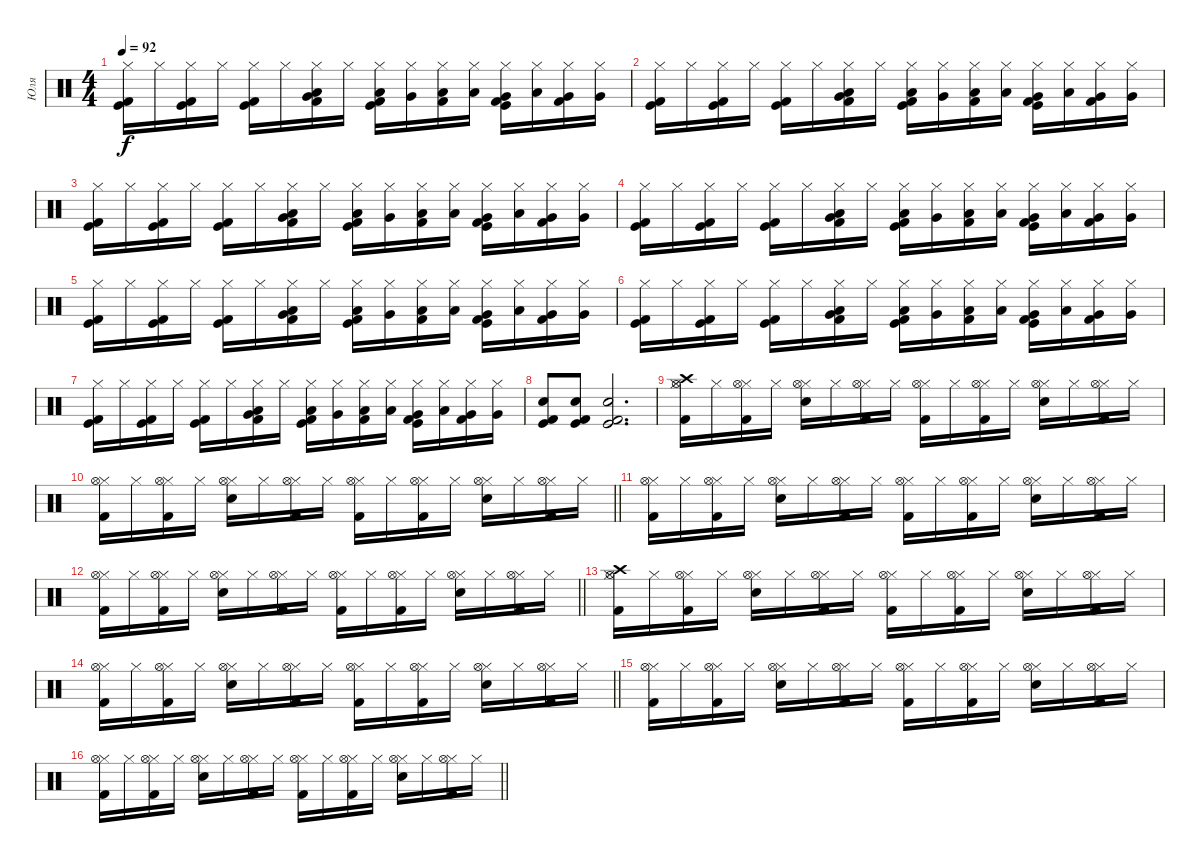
\track ("Юля" "Юля") {instrument percussion}
\staff {score}
\articulation defaults
\ts (4 4)
\tempo 92
\clef neutral
\ks c
("Hi-Hat (closed)" "Kick (hit)" "Kick (hit) 2").16{dy f} "Hi-Hat (closed)".16 ("Hi-Hat (closed)" "Kick (hit)" "Kick (hit) 2").16 "Hi-Hat (closed)".16 ("Hi-Hat (closed)" "Kick (hit)" "Kick (hit) 2").16 "Hi-Hat (closed)".16 ("Hi-Hat (closed)" "Very Low Tom (hit)" "Low Floor Tom (hit)" "Kick (hit) 2").16 "Hi-Hat (closed)".16 ("Hi-Hat (closed)" "Low Floor Tom (hit)" "Kick (hit)" "Kick (hit) 2").16 ("Hi-Hat (closed)" "Very Low Tom (hit)").16 ("Hi-Hat (closed)" "Low Tom (hit)" "Kick (hit) 2").16 ("Hi-Hat (closed)" "Low Floor Tom (hit)").16 ("Hi-Hat (closed)" "Very Low Tom (hit)" "Kick (hit)" "Kick (hit) 2").16 ("Hi-Hat (closed)" "Low Floor Tom (hit)").16 ("Hi-Hat (closed)" "Very Low Tom (hit)" "Kick (hit) 2").16 ("Hi-Hat (closed)" "Very Low Tom (hit)").16 |
("Hi-Hat (closed)" "Kick (hit)" "Kick (hit) 2").16 "Hi-Hat (closed)".16 ("Hi-Hat (closed)" "Kick (hit)" "Kick (hit) 2").16 "Hi-Hat (closed)".16 ("Hi-Hat (closed)" "Kick (hit)" "Kick (hit) 2").16 "Hi-Hat (closed)".16 ("Hi-Hat (closed)" "Very Low Tom (hit)" "Low Floor Tom (hit)" "Kick (hit) 2").16 "Hi-Hat (closed)".16 ("Hi-Hat (closed)" "Low Floor Tom (hit)" "Kick (hit)" "Kick (hit) 2").16 ("Hi-Hat (closed)" "Very Low Tom (hit)").16 ("Hi-Hat (closed)" "Low Tom (hit)" "Kick (hit) 2").16 ("Hi-Hat (closed)" "Low Floor Tom (hit)").16 ("Hi-Hat (closed)" "Very Low Tom (hit)" "Kick (hit)" "Kick (hit) 2").16 ("Hi-Hat (closed)" "Low Floor Tom (hit)").16 ("Hi-Hat (closed)" "Very Low Tom (hit)" "Kick (hit) 2").16 ("Hi-Hat (closed)" "Very Low Tom (hit)").16 |
("Hi-Hat (closed)" "Kick (hit)" "Kick (hit) 2").16 "Hi-Hat (closed)".16 ("Hi-Hat (closed)" "Kick (hit)" "Kick (hit) 2").16 "Hi-Hat (closed)".16 ("Hi-Hat (closed)" "Kick (hit)" "Kick (hit) 2").16 "Hi-Hat (closed)".16 ("Hi-Hat (closed)" "Very Low Tom (hit)" "Low Floor Tom (hit)" "Kick (hit) 2").16 "Hi-Hat (closed)".16 ("Hi-Hat (closed)" "Low Floor Tom (hit)" "Kick (hit)" "Kick (hit) 2").16 ("Hi-Hat (closed)" "Very Low Tom (hit)").16 ("Hi-Hat (closed)" "Low Tom (hit)" "Kick (hit) 2").16 ("Hi-Hat (closed)" "Low Floor Tom (hit)").16 ("Hi-Hat (closed)" "Very Low Tom (hit)" "Kick (hit)" "Kick (hit) 2").16 ("Hi-Hat (closed)" "Low Floor Tom (hit)").16 ("Hi-Hat (closed)" "Very Low Tom (hit)" "Kick (hit) 2").16 ("Hi-Hat (closed)" "Very Low Tom (hit)").16 |
("Hi-Hat (closed)" "Kick (hit)" "Kick (hit) 2").16 "Hi-Hat (closed)".16 ("Hi-Hat (closed)" "Kick (hit)" "Kick (hit) 2").16 "Hi-Hat (closed)".16 ("Hi-Hat (closed)" "Kick (hit)" "Kick (hit) 2").16 "Hi-Hat (closed)".16 ("Hi-Hat (closed)" "Very Low Tom (hit)" "Low Floor Tom (hit)" "Kick (hit) 2").16 "Hi-Hat (closed)".16 ("Hi-Hat (closed)" "Low Floor Tom (hit)" "Kick (hit)" "Kick (hit) 2").16 ("Hi-Hat (closed)" "Very Low Tom (hit)").16 ("Hi-Hat (closed)" "Low Tom (hit)" "Kick (hit) 2").16 ("Hi-Hat (closed)" "Low Floor Tom (hit)").16 ("Hi-Hat (closed)" "Very Low Tom (hit)" "Kick (hit)" "Kick (hit) 2").16 ("Hi-Hat (closed)" "Low Floor Tom (hit)").16 ("Hi-Hat (closed)" "Very Low Tom (hit)" "Kick (hit) 2").16 ("Hi-Hat (closed)" "Very Low Tom (hit)").16 |
("Hi-Hat (closed)" "Kick (hit)" "Kick (hit) 2").16 "Hi-Hat (closed)".16 ("Hi-Hat (closed)" "Kick (hit)" "Kick (hit) 2").16 "Hi-Hat (closed)".16 ("Hi-Hat (closed)" "Kick (hit)" "Kick (hit) 2").16 "Hi-Hat (closed)".16 ("Hi-Hat (closed)" "Very Low Tom (hit)" "Low Floor Tom (hit)" "Kick (hit) 2").16 "Hi-Hat (closed)".16 ("Hi-Hat (closed)" "Low Floor Tom (hit)" "Kick (hit)" "Kick (hit) 2").16 ("Hi-Hat (closed)" "Very Low Tom (hit)").16 ("Hi-Hat (closed)" "Low Tom (hit)" "Kick (hit) 2").16 ("Hi-Hat (closed)" "Low Floor Tom (hit)").16 ("Hi-Hat (closed)" "Very Low Tom (hit)" "Kick (hit)" "Kick (hit) 2").16 ("Hi-Hat (closed)" "Low Floor Tom (hit)").16 ("Hi-Hat (closed)" "Very Low Tom (hit)" "Kick (hit) 2").16 ("Hi-Hat (closed)" "Very Low Tom (hit)").16 |
("Hi-Hat (closed)" "Kick (hit)" "Kick (hit) 2").16 "Hi-Hat (closed)".16 ("Hi-Hat (closed)" "Kick (hit)" "Kick (hit) 2").16 "Hi-Hat (closed)".16 ("Hi-Hat (closed)" "Kick (hit)" "Kick (hit) 2").16 "Hi-Hat (closed)".16 ("Hi-Hat (closed)" "Very Low Tom (hit)" "Low Floor Tom (hit)" "Kick (hit) 2").16 "Hi-Hat (closed)".16 ("Hi-Hat (closed)" "Low Floor Tom (hit)" "Kick (hit)" "Kick (hit) 2").16 ("Hi-Hat (closed)" "Very Low Tom (hit)").16 ("Hi-Hat (closed)" "Low Tom (hit)" "Kick (hit) 2").16 ("Hi-Hat (closed)" "Low Floor Tom (hit)").16 ("Hi-Hat (closed)" "Very Low Tom (hit)" "Kick (hit)" "Kick (hit) 2").16 ("Hi-Hat (closed)" "Low Floor Tom (hit)").16 ("Hi-Hat (closed)" "Very Low Tom (hit)" "Kick (hit) 2").16 ("Hi-Hat (closed)" "Very Low Tom (hit)").16 |
("Hi-Hat (closed)" "Kick (hit)" "Kick (hit) 2").16 "Hi-Hat (closed)".16 ("Hi-Hat (closed)" "Kick (hit)" "Kick (hit) 2").16 "Hi-Hat (closed)".16 ("Hi-Hat (closed)" "Kick (hit)" "Kick (hit) 2").16 "Hi-Hat (closed)".16 ("Hi-Hat (closed)" "Very Low Tom (hit)" "Low Floor Tom (hit)" "Kick (hit) 2").16 "Hi-Hat (closed)".16 ("Hi-Hat (closed)" "Low Floor Tom (hit)" "Kick (hit)" "Kick (hit) 2").16 ("Hi-Hat (closed)" "Very Low Tom (hit)").16 ("Hi-Hat (closed)" "Low Tom (hit)" "Kick (hit) 2").16 ("Hi-Hat (closed)" "Low Floor Tom (hit)").16 ("Hi-Hat (closed)" "Very Low Tom (hit)" "Kick (hit)" "Kick (hit) 2").16 ("Hi-Hat (closed)" "Low Floor Tom (hit)").16 ("Hi-Hat (closed)" "Very Low Tom (hit)" "Kick (hit) 2").16 ("Hi-Hat (closed)" "Very Low Tom (hit)").16 |
("Snare (hit) 2" "Kick (hit)" "Kick (hit) 2").8 ("Snare (hit) 2" "Kick (hit)" "Kick (hit) 2").8 ("Snare (hit) 2" "Kick (hit)" "Kick (hit) 2").2{d} |
("Hi-Hat (closed)" "Crash high (hit)" "Hi-Hat (open)" "Kick (hit) 2").16 "Hi-Hat (closed)".16 ("Hi-Hat (closed)" "Hi-Hat (open)" "Kick (hit) 2").16 "Hi-Hat (closed)".16 ("Hi-Hat (closed)" "Snare (hit) 2" "Hi-Hat (open)").16 "Hi-Hat (closed)".16 ("Hi-Hat (closed)" "Hi-Hat (open)" "Kick (hit) 2").16 "Hi-Hat (closed)".16 ("Hi-Hat (closed)" "Hi-Hat (open)" "Kick (hit) 2").16 "Hi-Hat (closed)".16 ("Hi-Hat (closed)" "Hi-Hat (open)" "Kick (hit) 2").16 "Hi-Hat (closed)".16 ("Hi-Hat (closed)" "Snare (hit) 2" "Hi-Hat (open)").16 "Hi-Hat (closed)".16 ("Hi-Hat (closed)" "Hi-Hat (open)" "Kick (hit) 2").16 "Hi-Hat (closed)".16 |
\barLineRight lightlight
("Hi-Hat (closed)" "Hi-Hat (open)" "Kick (hit) 2").16 "Hi-Hat (closed)".16 ("Hi-Hat (closed)" "Hi-Hat (open)" "Kick (hit) 2").16 "Hi-Hat (closed)".16 ("Hi-Hat (closed)" "Snare (hit) 2" "Hi-Hat (open)").16 "Hi-Hat (closed)".16 ("Hi-Hat (closed)" "Hi-Hat (open)" "Kick (hit) 2").16 "Hi-Hat (closed)".16 ("Hi-Hat (closed)" "Hi-Hat (open)" "Kick (hit) 2").16 "Hi-Hat (closed)".16 ("Hi-Hat (closed)" "Hi-Hat (open)" "Kick (hit) 2").16 "Hi-Hat (closed)".16 ("Hi-Hat (closed)" "Snare (hit) 2" "Hi-Hat (open)").16 "Hi-Hat (closed)".16 ("Hi-Hat (closed)" "Hi-Hat (open)" "Kick (hit) 2").16 "Hi-Hat (closed)".16 |
("Hi-Hat (closed)" "Hi-Hat (open)" "Kick (hit) 2").16 "Hi-Hat (closed)".16 ("Hi-Hat (closed)" "Hi-Hat (open)" "Kick (hit) 2").16 "Hi-Hat (closed)".16 ("Hi-Hat (closed)" "Snare (hit) 2" "Hi-Hat (open)").16 "Hi-Hat (closed)".16 ("Hi-Hat (closed)" "Hi-Hat (open)" "Kick (hit) 2").16 "Hi-Hat (closed)".16 ("Hi-Hat (closed)" "Hi-Hat (open)" "Kick (hit) 2").16 "Hi-Hat (closed)".16 ("Hi-Hat (closed)" "Hi-Hat (open)" "Kick (hit) 2").16 "Hi-Hat (closed)".16 ("Hi-Hat (closed)" "Snare (hit) 2" "Hi-Hat (open)").16 "Hi-Hat (closed)".16 ("Hi-Hat (closed)" "Hi-Hat (open)" "Kick (hit) 2").16 "Hi-Hat (closed)".16 |
\barLineRight lightlight
("Hi-Hat (closed)" "Hi-Hat (open)" "Kick (hit) 2").16 "Hi-Hat (closed)".16 ("Hi-Hat (closed)" "Hi-Hat (open)" "Kick (hit) 2").16 "Hi-Hat (closed)".16 ("Hi-Hat (closed)" "Snare (hit) 2" "Hi-Hat (open)").16 "Hi-Hat (closed)".16 ("Hi-Hat (closed)" "Hi-Hat (open)" "Kick (hit) 2").16 "Hi-Hat (closed)".16 ("Hi-Hat (closed)" "Hi-Hat (open)" "Kick (hit) 2").16 "Hi-Hat (closed)".16 ("Hi-Hat (closed)" "Hi-Hat (open)" "Kick (hit) 2").16 "Hi-Hat (closed)".16 ("Hi-Hat (closed)" "Snare (hit) 2" "Hi-Hat (open)").16 "Hi-Hat (closed)".16 ("Hi-Hat (closed)" "Hi-Hat (open)" "Kick (hit) 2").16 "Hi-Hat (closed)".16 |
("Hi-Hat (closed)" "Crash high (hit)" "Hi-Hat (open)" "Kick (hit) 2").16 "Hi-Hat (closed)".16 ("Hi-Hat (closed)" "Hi-Hat (open)" "Kick (hit) 2").16 "Hi-Hat (closed)".16 ("Hi-Hat (closed)" "Snare (hit) 2" "Hi-Hat (open)").16 "Hi-Hat (closed)".16 ("Hi-Hat (closed)" "Hi-Hat (open)" "Kick (hit) 2").16 "Hi-Hat (closed)".16 ("Hi-Hat (closed)" "Hi-Hat (open)" "Kick (hit) 2").16 "Hi-Hat (closed)".16 ("Hi-Hat (closed)" "Hi-Hat (open)" "Kick (hit) 2").16 "Hi-Hat (closed)".16 ("Hi-Hat (closed)" "Snare (hit) 2" "Hi-Hat (open)").16 "Hi-Hat (closed)".16 ("Hi-Hat (closed)" "Hi-Hat (open)" "Kick (hit) 2").16 "Hi-Hat (closed)".16 |
\barLineRight lightlight
("Hi-Hat (closed)" "Hi-Hat (open)" "Kick (hit) 2").16 "Hi-Hat (closed)".16 ("Hi-Hat (closed)" "Hi-Hat (open)" "Kick (hit) 2").16 "Hi-Hat (closed)".16 ("Hi-Hat (closed)" "Snare (hit) 2" "Hi-Hat (open)").16 "Hi-Hat (closed)".16 ("Hi-Hat (closed)" "Hi-Hat (open)" "Kick (hit) 2").16 "Hi-Hat (closed)".16 ("Hi-Hat (closed)" "Hi-Hat (open)" "Kick (hit) 2").16 "Hi-Hat (closed)".16 ("Hi-Hat (closed)" "Hi-Hat (open)" "Kick (hit) 2").16 "Hi-Hat (closed)".16 ("Hi-Hat (closed)" "Snare (hit) 2" "Hi-Hat (open)").16 "Hi-Hat (closed)".16 ("Hi-Hat (closed)" "Hi-Hat (open)" "Kick (hit) 2").16 "Hi-Hat (closed)".16 |
("Hi-Hat (closed)" "Hi-Hat (open)" "Kick (hit) 2").16 "Hi-Hat (closed)".16 ("Hi-Hat (closed)" "Hi-Hat (open)" "Kick (hit) 2").16 "Hi-Hat (closed)".16 ("Hi-Hat (closed)" "Snare (hit) 2" "Hi-Hat (open)").16 "Hi-Hat (closed)".16 ("Hi-Hat (closed)" "Hi-Hat (open)" "Kick (hit) 2").16 "Hi-Hat (closed)".16 ("Hi-Hat (closed)" "Hi-Hat (open)" "Kick (hit) 2").16 "Hi-Hat (closed)".16 ("Hi-Hat (closed)" "Hi-Hat (open)" "Kick (hit) 2").16 "Hi-Hat (closed)".16 ("Hi-Hat (closed)" "Snare (hit) 2" "Hi-Hat (open)").16 "Hi-Hat (closed)".16 ("Hi-Hat (closed)" "Hi-Hat (open)" "Kick (hit) 2").16 "Hi-Hat (closed)".16 |
\barLineRight lightlight
("Hi-Hat (closed)" "Hi-Hat (open)" "Kick (hit) 2").16 "Hi-Hat (closed)".16 ("Hi-Hat (closed)" "Hi-Hat (open)" "Kick (hit) 2").16 "Hi-Hat (closed)".16 ("Hi-Hat (closed)" "Snare (hit) 2" "Hi-Hat (open)").16 "Hi-Hat (closed)".16 ("Hi-Hat (closed)" "Hi-Hat (open)" "Kick (hit) 2").16 "Hi-Hat (closed)".16 ("Hi-Hat (closed)" "Hi-Hat (open)" "Kick (hit) 2").16 "Hi-Hat (closed)".16 ("Hi-Hat (closed)" "Hi-Hat (open)" "Kick (hit) 2").16 "Hi-Hat (closed)".16 ("Hi-Hat (closed)" "Snare (hit) 2" "Hi-Hat (open)").16 "Hi-Hat (closed)".16 ("Hi-Hat (closed)" "Hi-Hat (open)" "Kick (hit) 2").16 "Hi-Hat (closed)".16
